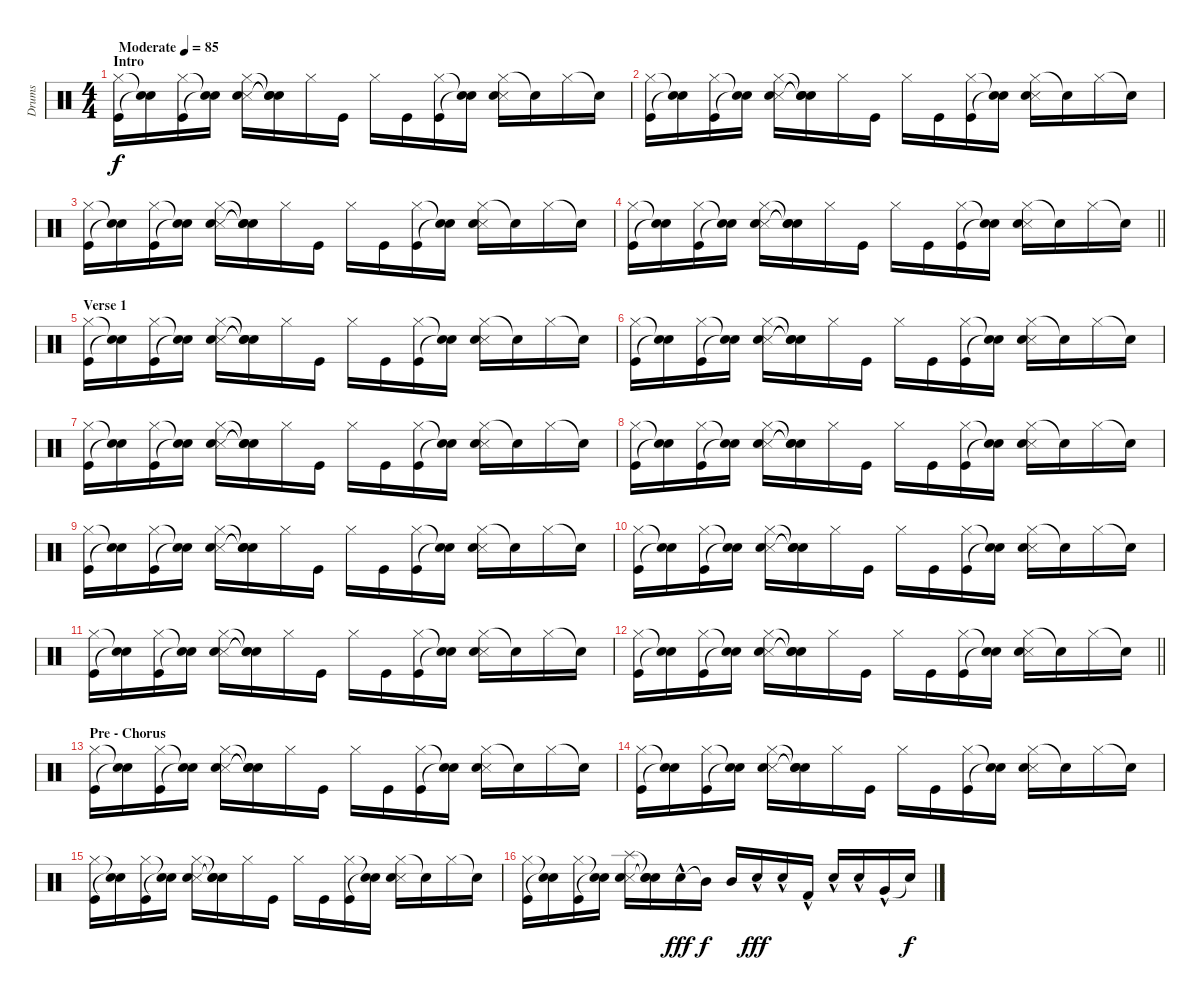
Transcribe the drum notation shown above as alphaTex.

\track ("Drums" "Drums") {instrument percussion bank 17}
\staff {score}
\articulation defaults
\ts (4 4)
\section ("" "Intro")
\tempo (85 "Moderate")
\clef neutral
\ks c
("Hi-Hat (closed)" "Kick (hit)").16{dy f} ("Snare (hit)"{t} "Snare (hit)"{t}).16 ("Hi-Hat (closed)" "Kick (hit)").16 ("Snare (hit)"{t} "Snare (hit)"{t}).16 ("Hi-Hat (closed)" "Metronome (hit)" "Electric Snare (hit)").16 ("Snare (hit)"{t} "Snare (hit)"{t} "Snare (hit)"{t}).16 "Hi-Hat (closed)".16 "Kick (hit)".16 "Hi-Hat (closed)".16 "Kick (hit)".16 ("Hi-Hat (closed)" "Kick (hit)").16 ("Snare (hit)"{t} "Snare (hit)"{t}).16 ("Hi-Hat (closed)" "Metronome (hit)" "Electric Snare (hit)").16 "Snare (hit)"{t}.16 "Hi-Hat (closed)".16 "Snare (hit)"{t}.16 |
("Hi-Hat (closed)" "Kick (hit)").16 ("Snare (hit)"{t} "Snare (hit)"{t}).16 ("Hi-Hat (closed)" "Kick (hit)").16 ("Snare (hit)"{t} "Snare (hit)"{t}).16 ("Hi-Hat (closed)" "Metronome (hit)" "Electric Snare (hit)").16 ("Snare (hit)"{t} "Snare (hit)"{t} "Snare (hit)"{t}).16 "Hi-Hat (closed)".16 "Kick (hit)".16 "Hi-Hat (closed)".16 "Kick (hit)".16 ("Hi-Hat (closed)" "Kick (hit)").16 ("Snare (hit)"{t} "Snare (hit)"{t}).16 ("Hi-Hat (closed)" "Metronome (hit)" "Electric Snare (hit)").16 "Snare (hit)"{t}.16 "Hi-Hat (closed)".16 "Snare (hit)"{t}.16 |
("Hi-Hat (closed)" "Kick (hit)").16 ("Snare (hit)"{t} "Snare (hit)"{t}).16 ("Hi-Hat (closed)" "Kick (hit)").16 ("Snare (hit)"{t} "Snare (hit)"{t}).16 ("Hi-Hat (closed)" "Metronome (hit)" "Electric Snare (hit)").16 ("Snare (hit)"{t} "Snare (hit)"{t} "Snare (hit)"{t}).16 "Hi-Hat (closed)".16 "Kick (hit)".16 "Hi-Hat (closed)".16 "Kick (hit)".16 ("Hi-Hat (closed)" "Kick (hit)").16 ("Snare (hit)"{t} "Snare (hit)"{t}).16 ("Hi-Hat (closed)" "Metronome (hit)" "Electric Snare (hit)").16 "Snare (hit)"{t}.16 "Hi-Hat (closed)".16 "Snare (hit)"{t}.16 |
\barLineRight lightlight
("Hi-Hat (closed)" "Kick (hit)").16 ("Snare (hit)"{t} "Snare (hit)"{t}).16 ("Hi-Hat (closed)" "Kick (hit)").16 ("Snare (hit)"{t} "Snare (hit)"{t}).16 ("Hi-Hat (closed)" "Metronome (hit)" "Electric Snare (hit)").16 ("Snare (hit)"{t} "Snare (hit)"{t} "Snare (hit)"{t}).16 "Hi-Hat (closed)".16 "Kick (hit)".16 "Hi-Hat (closed)".16 "Kick (hit)".16 ("Hi-Hat (closed)" "Kick (hit)").16 ("Snare (hit)"{t} "Snare (hit)"{t}).16 ("Hi-Hat (closed)" "Metronome (hit)" "Electric Snare (hit)").16 "Snare (hit)"{t}.16 "Hi-Hat (closed)".16 "Snare (hit)"{t}.16 |
\section ("" "Verse 1")
("Hi-Hat (closed)" "Kick (hit)").16 ("Snare (hit)"{t} "Snare (hit)"{t}).16 ("Hi-Hat (closed)" "Kick (hit)").16 ("Snare (hit)"{t} "Snare (hit)"{t}).16 ("Hi-Hat (closed)" "Metronome (hit)" "Electric Snare (hit)").16 ("Snare (hit)"{t} "Snare (hit)"{t} "Snare (hit)"{t}).16 "Hi-Hat (closed)".16 "Kick (hit)".16 "Hi-Hat (closed)".16 "Kick (hit)".16 ("Hi-Hat (closed)" "Kick (hit)").16 ("Snare (hit)"{t} "Snare (hit)"{t}).16 ("Hi-Hat (closed)" "Metronome (hit)" "Electric Snare (hit)").16 "Snare (hit)"{t}.16 "Hi-Hat (closed)".16 "Snare (hit)"{t}.16 |
("Hi-Hat (closed)" "Kick (hit)").16 ("Snare (hit)"{t} "Snare (hit)"{t}).16 ("Hi-Hat (closed)" "Kick (hit)").16 ("Snare (hit)"{t} "Snare (hit)"{t}).16 ("Hi-Hat (closed)" "Metronome (hit)" "Electric Snare (hit)").16 ("Snare (hit)"{t} "Snare (hit)"{t} "Snare (hit)"{t}).16 "Hi-Hat (closed)".16 "Kick (hit)".16 "Hi-Hat (closed)".16 "Kick (hit)".16 ("Hi-Hat (closed)" "Kick (hit)").16 ("Snare (hit)"{t} "Snare (hit)"{t}).16 ("Hi-Hat (closed)" "Metronome (hit)" "Electric Snare (hit)").16 "Snare (hit)"{t}.16 "Hi-Hat (closed)".16 "Snare (hit)"{t}.16 |
("Hi-Hat (closed)" "Kick (hit)").16 ("Snare (hit)"{t} "Snare (hit)"{t}).16 ("Hi-Hat (closed)" "Kick (hit)").16 ("Snare (hit)"{t} "Snare (hit)"{t}).16 ("Hi-Hat (closed)" "Metronome (hit)" "Electric Snare (hit)").16 ("Snare (hit)"{t} "Snare (hit)"{t} "Snare (hit)"{t}).16 "Hi-Hat (closed)".16 "Kick (hit)".16 "Hi-Hat (closed)".16 "Kick (hit)".16 ("Hi-Hat (closed)" "Kick (hit)").16 ("Snare (hit)"{t} "Snare (hit)"{t}).16 ("Hi-Hat (closed)" "Metronome (hit)" "Electric Snare (hit)").16 "Snare (hit)"{t}.16 "Hi-Hat (closed)".16 "Snare (hit)"{t}.16 |
("Hi-Hat (closed)" "Kick (hit)").16 ("Snare (hit)"{t} "Snare (hit)"{t}).16 ("Hi-Hat (closed)" "Kick (hit)").16 ("Snare (hit)"{t} "Snare (hit)"{t}).16 ("Hi-Hat (closed)" "Metronome (hit)" "Electric Snare (hit)").16 ("Snare (hit)"{t} "Snare (hit)"{t} "Snare (hit)"{t}).16 "Hi-Hat (closed)".16 "Kick (hit)".16 "Hi-Hat (closed)".16 "Kick (hit)".16 ("Hi-Hat (closed)" "Kick (hit)").16 ("Snare (hit)"{t} "Snare (hit)"{t}).16 ("Hi-Hat (closed)" "Metronome (hit)" "Electric Snare (hit)").16 "Snare (hit)"{t}.16 "Hi-Hat (closed)".16 "Snare (hit)"{t}.16 |
("Hi-Hat (closed)" "Kick (hit)").16 ("Snare (hit)"{t} "Snare (hit)"{t}).16 ("Hi-Hat (closed)" "Kick (hit)").16 ("Snare (hit)"{t} "Snare (hit)"{t}).16 ("Hi-Hat (closed)" "Metronome (hit)" "Electric Snare (hit)").16 ("Snare (hit)"{t} "Snare (hit)"{t} "Snare (hit)"{t}).16 "Hi-Hat (closed)".16 "Kick (hit)".16 "Hi-Hat (closed)".16 "Kick (hit)".16 ("Hi-Hat (closed)" "Kick (hit)").16 ("Snare (hit)"{t} "Snare (hit)"{t}).16 ("Hi-Hat (closed)" "Metronome (hit)" "Electric Snare (hit)").16 "Snare (hit)"{t}.16 "Hi-Hat (closed)".16 "Snare (hit)"{t}.16 |
("Hi-Hat (closed)" "Kick (hit)").16 ("Snare (hit)"{t} "Snare (hit)"{t}).16 ("Hi-Hat (closed)" "Kick (hit)").16 ("Snare (hit)"{t} "Snare (hit)"{t}).16 ("Hi-Hat (closed)" "Metronome (hit)" "Electric Snare (hit)").16 ("Snare (hit)"{t} "Snare (hit)"{t} "Snare (hit)"{t}).16 "Hi-Hat (closed)".16 "Kick (hit)".16 "Hi-Hat (closed)".16 "Kick (hit)".16 ("Hi-Hat (closed)" "Kick (hit)").16 ("Snare (hit)"{t} "Snare (hit)"{t}).16 ("Hi-Hat (closed)" "Metronome (hit)" "Electric Snare (hit)").16 "Snare (hit)"{t}.16 "Hi-Hat (closed)".16 "Snare (hit)"{t}.16 |
("Hi-Hat (closed)" "Kick (hit)").16 ("Snare (hit)"{t} "Snare (hit)"{t}).16 ("Hi-Hat (closed)" "Kick (hit)").16 ("Snare (hit)"{t} "Snare (hit)"{t}).16 ("Hi-Hat (closed)" "Metronome (hit)" "Electric Snare (hit)").16 ("Snare (hit)"{t} "Snare (hit)"{t} "Snare (hit)"{t}).16 "Hi-Hat (closed)".16 "Kick (hit)".16 "Hi-Hat (closed)".16 "Kick (hit)".16 ("Hi-Hat (closed)" "Kick (hit)").16 ("Snare (hit)"{t} "Snare (hit)"{t}).16 ("Hi-Hat (closed)" "Metronome (hit)" "Electric Snare (hit)").16 "Snare (hit)"{t}.16 "Hi-Hat (closed)".16 "Snare (hit)"{t}.16 |
\barLineRight lightlight
("Hi-Hat (closed)" "Kick (hit)").16 ("Snare (hit)"{t} "Snare (hit)"{t}).16 ("Hi-Hat (closed)" "Kick (hit)").16 ("Snare (hit)"{t} "Snare (hit)"{t}).16 ("Hi-Hat (closed)" "Metronome (hit)" "Electric Snare (hit)").16 ("Snare (hit)"{t} "Snare (hit)"{t} "Snare (hit)"{t}).16 "Hi-Hat (closed)".16 "Kick (hit)".16 "Hi-Hat (closed)".16 "Kick (hit)".16 ("Hi-Hat (closed)" "Kick (hit)").16 ("Snare (hit)"{t} "Snare (hit)"{t}).16 ("Hi-Hat (closed)" "Metronome (hit)" "Electric Snare (hit)").16 "Snare (hit)"{t}.16 "Hi-Hat (closed)".16 "Snare (hit)"{t}.16 |
\section ("" "Pre - Chorus")
("Hi-Hat (closed)" "Kick (hit)").16 ("Snare (hit)"{t} "Snare (hit)"{t}).16 ("Hi-Hat (closed)" "Kick (hit)").16 ("Snare (hit)"{t} "Snare (hit)"{t}).16 ("Hi-Hat (closed)" "Metronome (hit)" "Electric Snare (hit)").16 ("Snare (hit)"{t} "Snare (hit)"{t} "Snare (hit)"{t}).16 "Hi-Hat (closed)".16 "Kick (hit)".16 "Hi-Hat (closed)".16 "Kick (hit)".16 ("Hi-Hat (closed)" "Kick (hit)").16 ("Snare (hit)"{t} "Snare (hit)"{t}).16 ("Hi-Hat (closed)" "Metronome (hit)" "Electric Snare (hit)").16 "Snare (hit)"{t}.16 "Hi-Hat (closed)".16 "Snare (hit)"{t}.16 |
("Hi-Hat (closed)" "Kick (hit)").16 ("Snare (hit)"{t} "Snare (hit)"{t}).16 ("Hi-Hat (closed)" "Kick (hit)").16 ("Snare (hit)"{t} "Snare (hit)"{t}).16 ("Hi-Hat (closed)" "Metronome (hit)" "Electric Snare (hit)").16 ("Snare (hit)"{t} "Snare (hit)"{t} "Snare (hit)"{t}).16 "Hi-Hat (closed)".16 "Kick (hit)".16 "Hi-Hat (closed)".16 "Kick (hit)".16 ("Hi-Hat (closed)" "Kick (hit)").16 ("Snare (hit)"{t} "Snare (hit)"{t}).16 ("Hi-Hat (closed)" "Metronome (hit)" "Electric Snare (hit)").16 "Snare (hit)"{t}.16 "Hi-Hat (closed)".16 "Snare (hit)"{t}.16 |
("Hi-Hat (closed)" "Kick (hit)").16 ("Snare (hit)"{t} "Snare (hit)"{t}).16 ("Hi-Hat (closed)" "Kick (hit)").16 ("Snare (hit)"{t} "Snare (hit)"{t}).16 ("Hi-Hat (closed)" "Metronome (hit)" "Electric Snare (hit)").16 ("Snare (hit)"{t} "Snare (hit)"{t} "Snare (hit)"{t}).16 "Hi-Hat (closed)".16 "Kick (hit)".16 "Hi-Hat (closed)".16 "Kick (hit)".16 ("Hi-Hat (closed)" "Kick (hit)").16 ("Snare (hit)"{t} "Snare (hit)"{t}).16 ("Hi-Hat (closed)" "Metronome (hit)" "Electric Snare (hit)").16 "Snare (hit)"{t}.16 "Hi-Hat (closed)".16 "Snare (hit)"{t}.16 |
("Hi-Hat (closed)" "Kick (hit)").16 ("Snare (hit)"{t} "Snare (hit)"{t}).16 ("Hi-Hat (closed)" "Kick (hit)").16 ("Snare (hit)"{t} "Snare (hit)"{t}).16 ("Splash (hit)" "Metronome (hit)" "Electric Snare (hit)").16 ("Snare (hit)"{t} "Snare (hit)"{t} "Snare (hit)"{t}).16 "Electric Snare (hit)"{hac}.16{dy fff} "Mid Tom (hit)"{t}.16{dy f} "Mid Tom (hit)".16 "Electric Snare (hit)"{hac}.16{dy fff} "Electric Snare (hit)"{hac}.16 "Kick (hit) 2"{hac}.16 "Electric Snare (hit)"{hac}.16 "Electric Snare (hit)"{hac}.16 "Very Low Tom (hit)"{hac}.16 "Snare (hit)"{t}.16{dy f}
